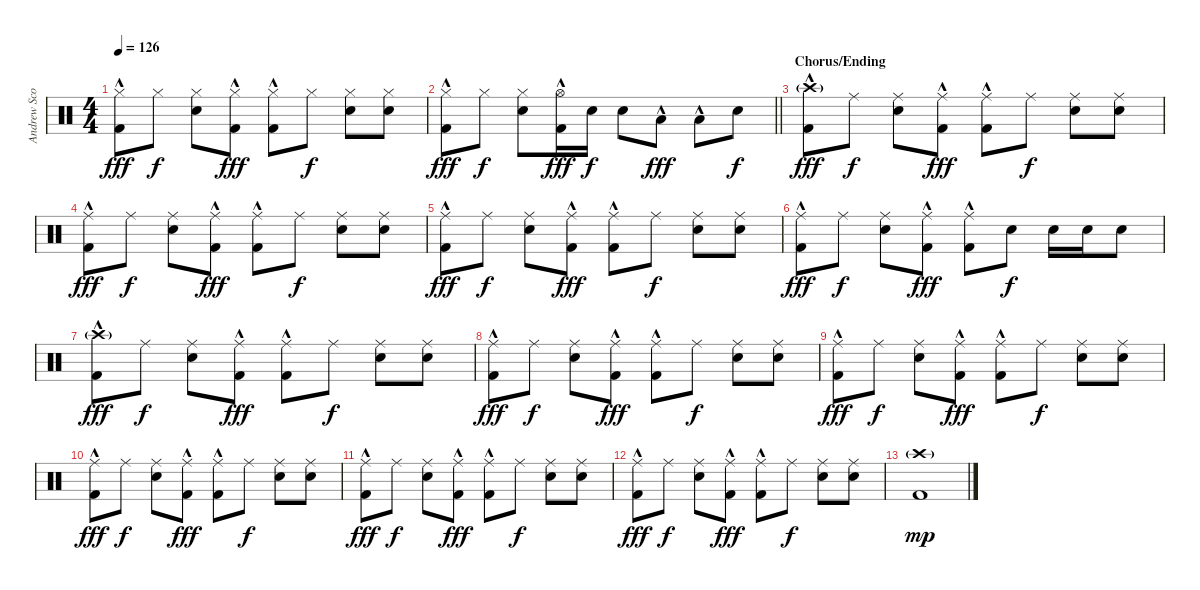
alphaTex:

\track ("Andrew Scott" "Andrew Sco") {instrument percussion}
\staff {score}
\articulation defaults
\ts (4 4)
\tempo 126
\clef neutral
\ks c
("Hi-Hat (closed)" "Kick (hit) 2"{hac}).8{dy fff} "Hi-Hat (closed)".8{dy f} ("Hi-Hat (closed)" "Snare (hit) 2").8 ("Hi-Hat (closed)" "Kick (hit) 2"{hac}).8{dy fff} ("Hi-Hat (closed)" "Kick (hit) 2"{hac}).8 "Hi-Hat (closed)".8{dy f} ("Hi-Hat (closed)" "Snare (hit) 2").8 ("Hi-Hat (closed)" "Snare (hit) 2").8 |
\barLineRight lightlight
("Hi-Hat (closed)" "Kick (hit) 2"{hac}).8{dy fff} "Hi-Hat (closed)".8{dy f} ("Hi-Hat (closed)" "Snare (hit) 2").8 ("Hi-Hat (open)" "Kick (hit) 2"{hac}).16{dy fff} "Snare (hit) 2".16{dy f} "Snare (hit) 2".8 "Low Tom (hit)"{hac}.8{dy fff} "Low Tom (hit)"{hac}.8 "Snare (hit) 2".8{dy f} |
\section ("" "Chorus/Ending")
("Crash high (hit)"{g} "Kick (hit) 2"{hac}).8{dy fff} "Ride (middle)".8{dy f} ("Ride (middle)" "Snare (hit) 2").8 ("Ride (middle)" "Kick (hit) 2"{hac}).8{dy fff} ("Ride (middle)" "Kick (hit) 2"{hac}).8 "Ride (middle)".8{dy f} ("Ride (middle)" "Snare (hit) 2").8 ("Ride (middle)" "Snare (hit) 2").8 |
("Ride (middle)" "Kick (hit) 2"{hac}).8{dy fff} "Ride (middle)".8{dy f} ("Ride (middle)" "Snare (hit) 2").8 ("Ride (middle)" "Kick (hit) 2"{hac}).8{dy fff} ("Ride (middle)" "Kick (hit) 2"{hac}).8 "Ride (middle)".8{dy f} ("Ride (middle)" "Snare (hit) 2").8 ("Ride (middle)" "Snare (hit) 2").8 |
("Ride (middle)" "Kick (hit) 2"{hac}).8{dy fff} "Ride (middle)".8{dy f} ("Ride (middle)" "Snare (hit) 2").8 ("Ride (middle)" "Kick (hit) 2"{hac}).8{dy fff} ("Ride (middle)" "Kick (hit) 2"{hac}).8 "Ride (middle)".8{dy f} ("Ride (middle)" "Snare (hit) 2").8 ("Ride (middle)" "Snare (hit) 2").8 |
("Ride (middle)" "Kick (hit) 2"{hac}).8{dy fff} "Ride (middle)".8{dy f} ("Ride (middle)" "Snare (hit) 2").8 ("Ride (middle)" "Kick (hit) 2"{hac}).8{dy fff} ("Ride (middle)" "Kick (hit) 2"{hac}).8 "Snare (hit) 2".8{dy f} "Snare (hit) 2".16 "Snare (hit) 2".16 "Snare (hit) 2".8 |
("Crash high (hit)"{g} "Kick (hit) 2"{hac}).8{dy fff} "Ride (middle)".8{dy f} ("Ride (middle)" "Snare (hit) 2").8 ("Ride (middle)" "Kick (hit) 2"{hac}).8{dy fff} ("Ride (middle)" "Kick (hit) 2"{hac}).8 "Ride (middle)".8{dy f} ("Ride (middle)" "Snare (hit) 2").8 ("Ride (middle)" "Snare (hit) 2").8 |
("Ride (middle)" "Kick (hit) 2"{hac}).8{dy fff} "Ride (middle)".8{dy f} ("Ride (middle)" "Snare (hit) 2").8 ("Ride (middle)" "Kick (hit) 2"{hac}).8{dy fff} ("Ride (middle)" "Kick (hit) 2"{hac}).8 "Ride (middle)".8{dy f} ("Ride (middle)" "Snare (hit) 2").8 ("Ride (middle)" "Snare (hit) 2").8 |
("Ride (middle)" "Kick (hit) 2"{hac}).8{dy fff} "Ride (middle)".8{dy f} ("Ride (middle)" "Snare (hit) 2").8 ("Ride (middle)" "Kick (hit) 2"{hac}).8{dy fff} ("Ride (middle)" "Kick (hit) 2"{hac}).8 "Ride (middle)".8{dy f} ("Ride (middle)" "Snare (hit) 2").8 ("Ride (middle)" "Snare (hit) 2").8 |
("Ride (middle)" "Kick (hit) 2"{hac}).8{dy fff} "Ride (middle)".8{dy f} ("Ride (middle)" "Snare (hit) 2").8 ("Ride (middle)" "Kick (hit) 2"{hac}).8{dy fff} ("Ride (middle)" "Kick (hit) 2"{hac}).8 "Ride (middle)".8{dy f} ("Ride (middle)" "Snare (hit) 2").8 ("Ride (middle)" "Snare (hit) 2").8 |
("Ride (middle)" "Kick (hit) 2"{hac}).8{dy fff} "Ride (middle)".8{dy f} ("Ride (middle)" "Snare (hit) 2").8 ("Ride (middle)" "Kick (hit) 2"{hac}).8{dy fff} ("Ride (middle)" "Kick (hit) 2"{hac}).8 "Ride (middle)".8{dy f} ("Ride (middle)" "Snare (hit) 2").8 ("Ride (middle)" "Snare (hit) 2").8 |
("Ride (middle)" "Kick (hit) 2"{hac}).8{dy fff} "Ride (middle)".8{dy f} ("Ride (middle)" "Snare (hit) 2").8 ("Ride (middle)" "Kick (hit) 2"{hac}).8{dy fff} ("Ride (middle)" "Kick (hit) 2"{hac}).8 "Ride (middle)".8{dy f} ("Ride (middle)" "Snare (hit) 2").8 ("Ride (middle)" "Snare (hit) 2").8 |
("Crash high (hit)"{g} "Kick (hit) 2").1{dy mp}
